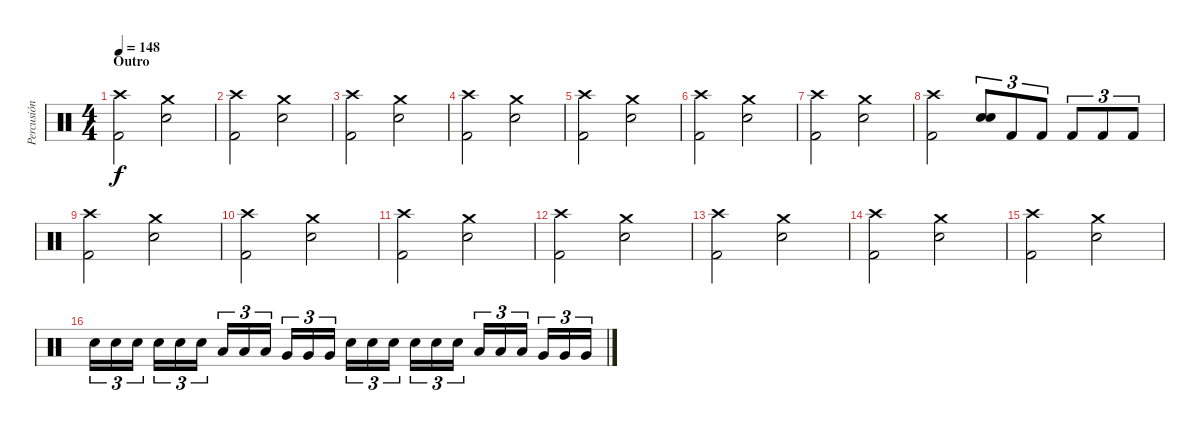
\track ("Percusión" "Percusión") {instrument percussion}
\staff {score}
\articulation defaults
\ts (4 4)
\section ("" "Outro")
\tempo 148
\clef neutral
\ks c
("Crash high (hit)" "Kick (hit) 2").2{dy f} ("Crash medium (hit)" "Electric Snare (hit)").2 |
("Crash high (hit)" "Kick (hit) 2").2 ("Crash medium (hit)" "Electric Snare (hit)").2 |
("Crash high (hit)" "Kick (hit) 2").2 ("Crash medium (hit)" "Electric Snare (hit)").2 |
("Crash high (hit)" "Kick (hit) 2").2 ("Crash medium (hit)" "Electric Snare (hit)").2 |
("Crash high (hit)" "Kick (hit) 2").2 ("Crash medium (hit)" "Electric Snare (hit)").2 |
("Crash high (hit)" "Kick (hit) 2").2 ("Crash medium (hit)" "Electric Snare (hit)").2 |
("Crash high (hit)" "Kick (hit) 2").2 ("Crash medium (hit)" "Electric Snare (hit)").2 |
("Crash high (hit)" "Kick (hit) 2").2 ("Electric Snare (hit)" "Electric Snare (hit)").8{tu (3 2) bd 120} "Kick (hit) 2".8{tu (3 2)} "Kick (hit) 2".8{tu (3 2)} "Kick (hit) 2".8{tu (3 2)} "Kick (hit) 2".8{tu (3 2)} "Kick (hit) 2".8{tu (3 2)} |
("Crash high (hit)" "Kick (hit) 2").2 ("Crash medium (hit)" "Electric Snare (hit)").2 |
("Crash high (hit)" "Kick (hit) 2").2 ("Crash medium (hit)" "Electric Snare (hit)").2 |
("Crash high (hit)" "Kick (hit) 2").2 ("Crash medium (hit)" "Electric Snare (hit)").2 |
("Crash high (hit)" "Kick (hit) 2").2 ("Crash medium (hit)" "Electric Snare (hit)").2 |
("Crash high (hit)" "Kick (hit) 2").2 ("Crash medium (hit)" "Electric Snare (hit)").2 |
("Crash high (hit)" "Kick (hit) 2").2 ("Crash medium (hit)" "Electric Snare (hit)").2 |
("Crash high (hit)" "Kick (hit) 2").2 ("Crash medium (hit)" "Electric Snare (hit)").2 |
"Electric Snare (hit)".16{tu (3 2)} "Electric Snare (hit)".16{tu (3 2)} "Electric Snare (hit)".16{tu (3 2) beam splitsecondary} "Electric Snare (hit)".16{tu (3 2)} "Electric Snare (hit)".16{tu (3 2)} "Electric Snare (hit)".16{tu (3 2)} "Low Tom (hit)".16{tu (3 2)} "Low Tom (hit)".16{tu (3 2)} "Low Tom (hit)".16{tu (3 2) beam splitsecondary} "Very Low Tom (hit)".16{tu (3 2)} "Very Low Tom (hit)".16{tu (3 2)} "Very Low Tom (hit)".16{tu (3 2)} "Electric Snare (hit)".16{tu (3 2)} "Electric Snare (hit)".16{tu (3 2)} "Electric Snare (hit)".16{tu (3 2) beam splitsecondary} "Electric Snare (hit)".16{tu (3 2)} "Electric Snare (hit)".16{tu (3 2)} "Electric Snare (hit)".16{tu (3 2)} "Low Tom (hit)".16{tu (3 2)} "Low Tom (hit)".16{tu (3 2)} "Low Tom (hit)".16{tu (3 2) beam splitsecondary} "Very Low Tom (hit)".16{tu (3 2)} "Very Low Tom (hit)".16{tu (3 2)} "Very Low Tom (hit)".16{tu (3 2)}
